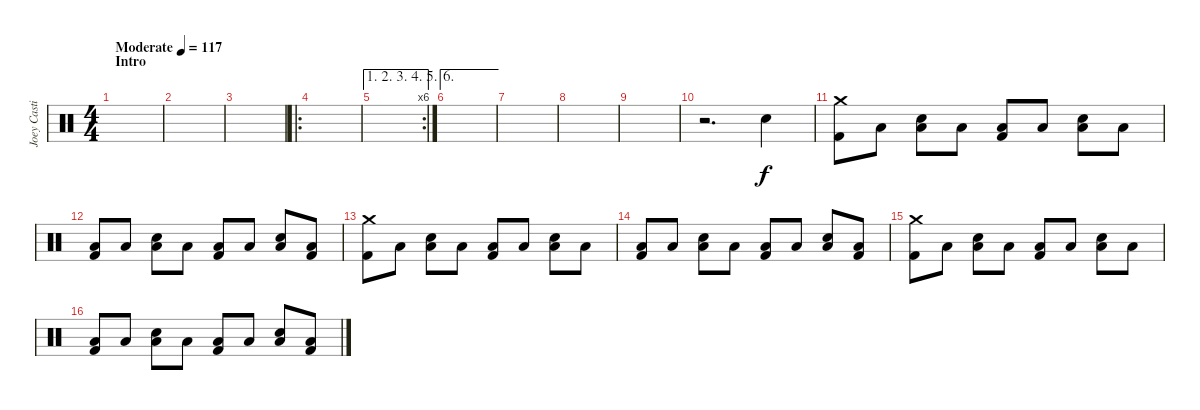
\track ("Joey Castillo" "Joey Casti") {instrument percussion}
\staff {score}
\articulation defaults
\ts (4 4)
\section ("" "Intro")
\tempo (117 "Moderate")
\clef neutral
\ks c
|
|
|
\ro
|
\ae (1 2 3 4 5)
\rc 6
|
\ae 6
|
|
|
|
r.2{d} "Snare (hit) 2".4 |
("Crash medium (hit)" "Kick (hit) 2").8 "Low Floor Tom (hit)".8 ("Low Floor Tom (hit)" "Snare (hit) 2").8 "Low Floor Tom (hit)".8 ("Low Floor Tom (hit)" "Kick (hit) 2").8 "Low Floor Tom (hit)".8 ("Low Floor Tom (hit)" "Snare (hit) 2").8 "Low Floor Tom (hit)".8 |
("Low Floor Tom (hit)" "Kick (hit) 2").8 "Low Floor Tom (hit)".8 ("Low Floor Tom (hit)" "Snare (hit) 2").8 "Low Floor Tom (hit)".8 ("Low Floor Tom (hit)" "Kick (hit) 2").8 "Low Floor Tom (hit)".8 ("Low Floor Tom (hit)" "Snare (hit) 2").8 ("Low Floor Tom (hit)" "Kick (hit) 2").8 |
("Crash medium (hit)" "Kick (hit) 2").8 "Low Floor Tom (hit)".8 ("Low Floor Tom (hit)" "Snare (hit) 2").8 "Low Floor Tom (hit)".8 ("Low Floor Tom (hit)" "Kick (hit) 2").8 "Low Floor Tom (hit)".8 ("Low Floor Tom (hit)" "Snare (hit) 2").8 "Low Floor Tom (hit)".8 |
("Low Floor Tom (hit)" "Kick (hit) 2").8 "Low Floor Tom (hit)".8 ("Low Floor Tom (hit)" "Snare (hit) 2").8 "Low Floor Tom (hit)".8 ("Low Floor Tom (hit)" "Kick (hit) 2").8 "Low Floor Tom (hit)".8 ("Low Floor Tom (hit)" "Snare (hit) 2").8 ("Low Floor Tom (hit)" "Kick (hit) 2").8 |
("Crash medium (hit)" "Kick (hit) 2").8 "Low Floor Tom (hit)".8 ("Low Floor Tom (hit)" "Snare (hit) 2").8 "Low Floor Tom (hit)".8 ("Low Floor Tom (hit)" "Kick (hit) 2").8 "Low Floor Tom (hit)".8 ("Low Floor Tom (hit)" "Snare (hit) 2").8 "Low Floor Tom (hit)".8 |
("Low Floor Tom (hit)" "Kick (hit) 2").8 "Low Floor Tom (hit)".8 ("Low Floor Tom (hit)" "Snare (hit) 2").8 "Low Floor Tom (hit)".8 ("Low Floor Tom (hit)" "Kick (hit) 2").8 "Low Floor Tom (hit)".8 ("Low Floor Tom (hit)" "Snare (hit) 2").8 ("Low Floor Tom (hit)" "Kick (hit) 2").8
